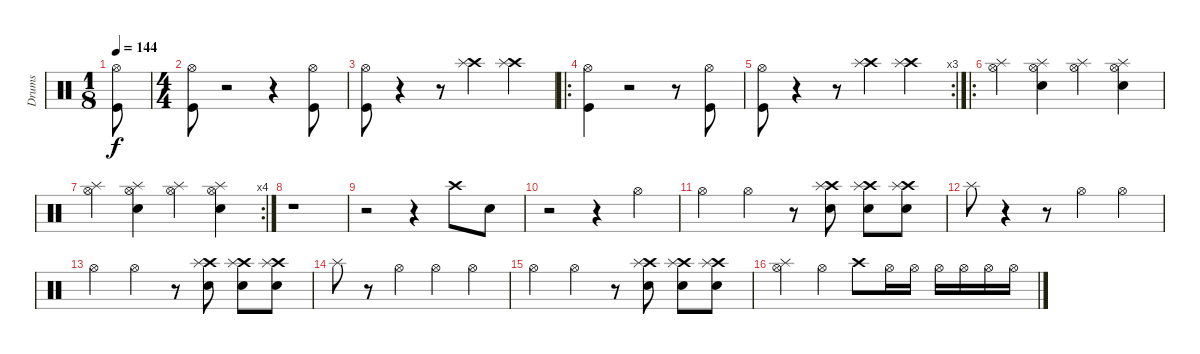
\track ("Drums" "Drums") {instrument percussion}
\staff {score}
\articulation defaults
\ts (1 8)
\tempo 144
\clef neutral
\ks c
("Kick (hit)" "Hi-Hat (open)").8{dy f} |
\ts (4 4)
("Kick (hit)" "Hi-Hat (open)").8 r.2 r.4 ("Kick (hit)" "Hi-Hat (open)").8 |
("Kick (hit)" "Hi-Hat (open)").8 r.4 r.8 ("Crash high (hit)" "Splash (hit)").4 ("Crash high (hit)" "Splash (hit)").4 |
\ro
("Kick (hit)" "Hi-Hat (open)").4 r.2 r.8 ("Kick (hit)" "Hi-Hat (open)").8 |
\rc 3
("Kick (hit)" "Hi-Hat (open)").8 r.4 r.8 ("Crash high (hit)" "Splash (hit)").4 ("Crash high (hit)" "Splash (hit)").4 |
\ro
("Hi-Hat (open)" "Splash (hit)").4 ("Snare (hit) 2" "Splash (hit)" "Hi-Hat (open)").4 ("Hi-Hat (open)" "Splash (hit)").4 ("Snare (hit) 2" "Splash (hit)" "Hi-Hat (open)").4 |
\rc 4
("Hi-Hat (open)" "Splash (hit)").4 ("Snare (hit) 2" "Hi-Hat (open)" "Splash (hit)").4 ("Hi-Hat (open)" "Splash (hit)").4 ("Snare (hit) 2" "Hi-Hat (open)" "Splash (hit)").4 |
r.1 |
r.2 r.4 "Crash high (hit)".8 "Snare (hit) 2".8 |
r.2 r.4 "Hi-Hat (open)".4 |
"Hi-Hat (open)".4 "Hi-Hat (open)".4 r.8 ("Snare (hit) 2" "Crash high (hit)" "Splash (hit)").8 ("Snare (hit) 2" "Crash high (hit)" "Splash (hit)").8 ("Snare (hit) 2" "Crash high (hit)" "Splash (hit)").8 |
"Splash (hit)".8 r.4 r.8 "Hi-Hat (open)".4 "Hi-Hat (open)".4 |
"Hi-Hat (open)".4 "Hi-Hat (open)".4 r.8 ("Snare (hit) 2" "Crash high (hit)" "Splash (hit)").8 ("Snare (hit) 2" "Crash high (hit)" "Splash (hit)").8 ("Snare (hit) 2" "Crash high (hit)" "Splash (hit)").8 |
"Splash (hit)".8 r.8 "Hi-Hat (open)".4 "Hi-Hat (open)".4 "Hi-Hat (open)".4 |
"Hi-Hat (open)".4 "Hi-Hat (open)".4 r.8 ("Snare (hit) 2" "Crash high (hit)" "Splash (hit)").8 ("Snare (hit) 2" "Crash high (hit)" "Splash (hit)").8 ("Snare (hit) 2" "Crash high (hit)" "Splash (hit)").8 |
("Splash (hit)" "Hi-Hat (open)").4 "Hi-Hat (open)".4 "Crash high (hit)".8 "Hi-Hat (open)".16 "Hi-Hat (open)".16 "Hi-Hat (open)".16 "Hi-Hat (open)".16 "Hi-Hat (open)".16 "Hi-Hat (open)".16
